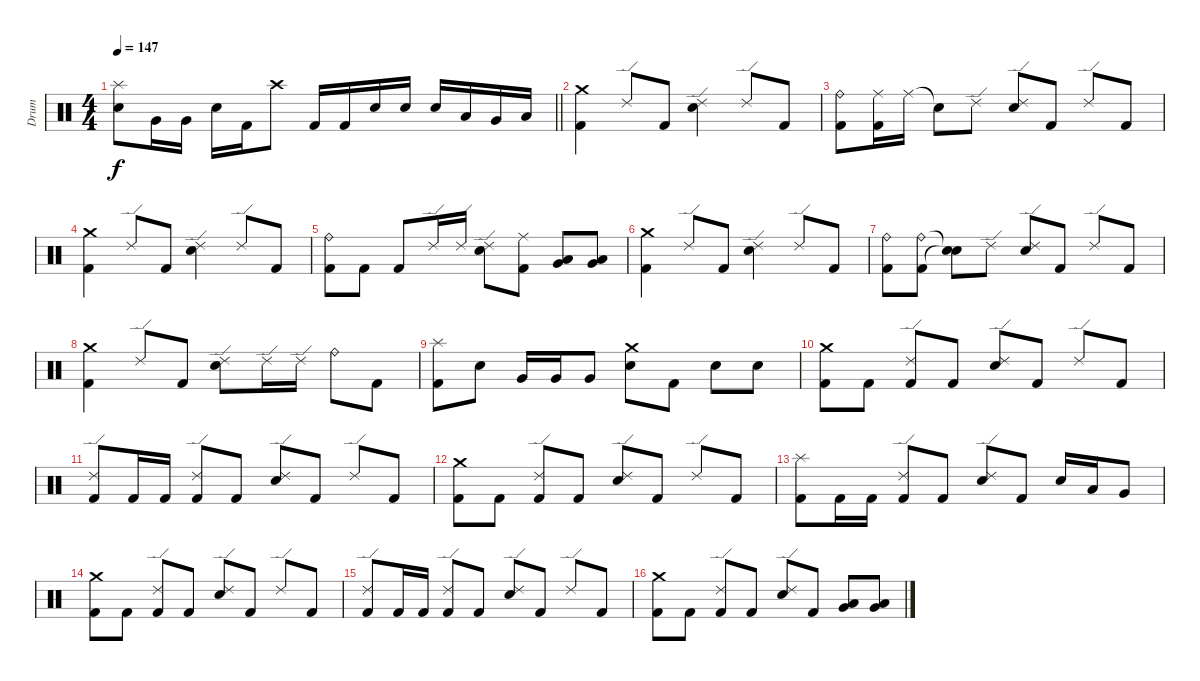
\track ("Drum" "Drum") {instrument percussion}
\staff {score}
\articulation defaults
\ts (4 4)
\tempo 147
\clef neutral
\barLineRight lightlight
\ks c
("Splash (hit)" "Electric Snare (hit)").8{dy f} "Very Low Tom (hit)".16 "Very Low Tom (hit)".16 "Electric Snare (hit)".16 "Kick (hit) 2".16 "Crash high (hit)".8 "Kick (hit) 2".16 "Kick (hit) 2".16 "Electric Snare (hit)".16 "Electric Snare (hit)".16 "Electric Snare (hit)".16 "Low Tom (hit)".16 "Very Low Tom (hit)".16 "Low Floor Tom (hit)".16 |
\section ("" "")
("Crash medium (hit)" "Kick (hit) 2").4 "Ride (edge) 2".8 "Kick (hit) 2".8 ("Ride (edge) 2" "Electric Snare (hit)").4 "Ride (edge) 2".8 "Kick (hit) 2".8 |
("Ride (bell)" "Kick (hit) 2").8 ("Ride (middle)" "Kick (hit) 2").16 "Ride (middle)".16 "Snare (hit)"{t}.8 "Ride (edge) 2".8 ("Ride (edge) 2" "Electric Snare (hit)").8 "Kick (hit) 2".8 "Ride (edge) 2".8 "Kick (hit) 2".8 |
("Crash medium (hit)" "Kick (hit) 2").4 "Ride (edge) 2".8 "Kick (hit) 2".8 ("Ride (edge) 2" "Electric Snare (hit)").4 "Ride (edge) 2".8 "Kick (hit) 2".8 |
("Ride (bell)" "Kick (hit) 2").8 "Kick (hit) 2".8 "Kick (hit) 2".8 "Ride (edge) 2".16 "Ride (edge) 2".16 ("Ride (edge) 2" "Electric Snare (hit)").8 ("Ride (middle)" "Kick (hit) 2").8 ("Low Tom (hit)" "Very Low Tom (hit)").8 ("Very Low Tom (hit)" "Low Floor Tom (hit)").8 |
("Crash medium (hit)" "Kick (hit) 2").4 "Ride (edge) 2".8 "Kick (hit) 2".8 ("Ride (edge) 2" "Electric Snare (hit)").4 "Ride (edge) 2".8 "Kick (hit) 2".8 |
("Ride (bell)" "Kick (hit) 2").8 ("Ride (bell)" "Kick (hit) 2").8 ("Snare (hit)"{t} "Snare (hit)"{t}).8 "Ride (edge) 2".8 ("Ride (edge) 2" "Electric Snare (hit)").8 "Kick (hit) 2".8 "Ride (edge) 2".8 "Kick (hit) 2".8 |
("Crash medium (hit)" "Kick (hit) 2").4 "Ride (edge) 2".8 "Kick (hit) 2".8 ("Ride (edge) 2" "Electric Snare (hit)").8 "Ride (edge) 2".16 "Ride (edge) 2".16 "Ride (bell)".8 "Kick (hit) 2".8 |
("Splash (hit)" "Kick (hit) 2").8 "Electric Snare (hit)".8 "Very Low Tom (hit)".16 "Very Low Tom (hit)".16 "Very Low Tom (hit)".8 ("Crash medium (hit)" "Electric Snare (hit)").8 "Kick (hit) 2".8 "Electric Snare (hit)".8 "Electric Snare (hit)".8 |
("Crash medium (hit)" "Kick (hit) 2").8 "Kick (hit) 2".8 ("Ride (edge) 2" "Kick (hit) 2").8 "Kick (hit) 2".8 ("Ride (edge) 2" "Electric Snare (hit)").8 "Kick (hit) 2".8 "Ride (edge) 2".8 "Kick (hit) 2".8 |
("Ride (edge) 2" "Kick (hit) 2").8 "Kick (hit) 2".16 "Kick (hit) 2".16 ("Ride (edge) 2" "Kick (hit) 2").8 "Kick (hit) 2".8 ("Ride (edge) 2" "Electric Snare (hit)").8 "Kick (hit) 2".8 "Ride (edge) 2".8 "Kick (hit) 2".8 |
("Crash medium (hit)" "Kick (hit) 2").8 "Kick (hit) 2".8 ("Ride (edge) 2" "Kick (hit) 2").8 "Kick (hit) 2".8 ("Ride (edge) 2" "Electric Snare (hit)").8 "Kick (hit) 2".8 "Ride (edge) 2".8 "Kick (hit) 2".8 |
("Splash (hit)" "Kick (hit) 2").8 "Kick (hit) 2".16 "Kick (hit) 2".16 ("Ride (edge) 2" "Kick (hit) 2").8 "Kick (hit) 2".8 ("Ride (edge) 2" "Electric Snare (hit)").8 "Kick (hit) 2".8 "Electric Snare (hit)".16 "Low Tom (hit)".16 "Very Low Tom (hit)".8 |
("Crash medium (hit)" "Kick (hit) 2").8 "Kick (hit) 2".8 ("Ride (edge) 2" "Kick (hit) 2").8 "Kick (hit) 2".8 ("Ride (edge) 2" "Electric Snare (hit)").8 "Kick (hit) 2".8 "Ride (edge) 2".8 "Kick (hit) 2".8 |
("Ride (edge) 2" "Kick (hit) 2").8 "Kick (hit) 2".16 "Kick (hit) 2".16 ("Ride (edge) 2" "Kick (hit) 2").8 "Kick (hit) 2".8 ("Ride (edge) 2" "Electric Snare (hit)").8 "Kick (hit) 2".8 "Ride (edge) 2".8 "Kick (hit) 2".8 |
("Crash medium (hit)" "Kick (hit) 2").8 "Kick (hit) 2".8 ("Ride (edge) 2" "Kick (hit) 2").8 "Kick (hit) 2".8 ("Ride (edge) 2" "Electric Snare (hit)").8 "Kick (hit) 2".8 ("Low Tom (hit)" "Very Low Tom (hit)").8 ("Very Low Tom (hit)" "Low Floor Tom (hit)").8
